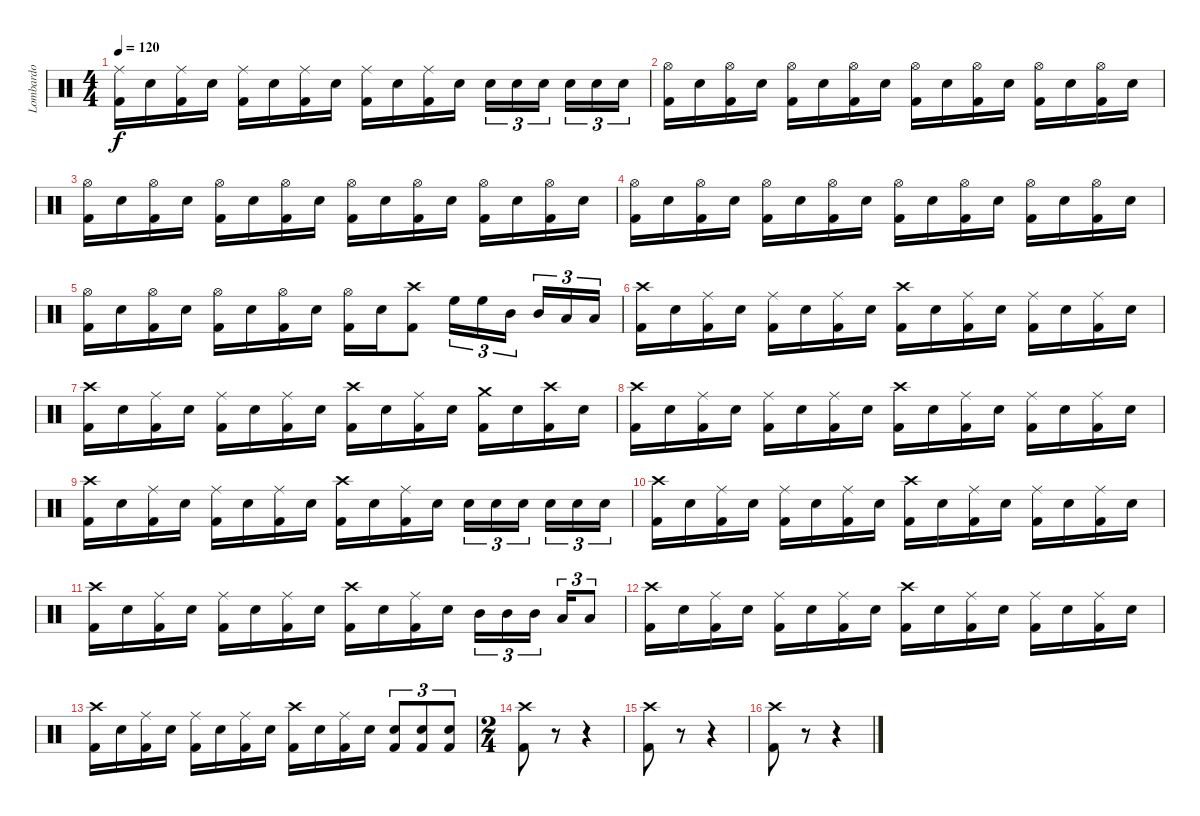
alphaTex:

\track ("Lombardo" "Lombardo") {instrument percussion}
\staff {score}
\articulation defaults
\ts (4 4)
\tempo 120
\clef neutral
\ks c
("Ride (middle)" "Kick (hit) 2").16{dy f} "Electric Snare (hit)".16 ("Ride (middle)" "Kick (hit) 2").16 "Electric Snare (hit)".16 ("Ride (middle)" "Kick (hit) 2").16 "Electric Snare (hit)".16 ("Ride (middle)" "Kick (hit) 2").16 "Electric Snare (hit)".16 ("Ride (middle)" "Kick (hit) 2").16 "Electric Snare (hit)".16 ("Ride (middle)" "Kick (hit) 2").16 "Electric Snare (hit)".16 "Electric Snare (hit)".16{tu (3 2)} "Electric Snare (hit)".16{tu (3 2)} "Electric Snare (hit)".16{tu (3 2)} "Electric Snare (hit)".16{tu (3 2)} "Electric Snare (hit)".16{tu (3 2)} "Electric Snare (hit)".16{tu (3 2)} |
("Hi-Hat (open)" "Kick (hit) 2").16 "Electric Snare (hit)".16 ("Hi-Hat (open)" "Kick (hit) 2").16 "Electric Snare (hit)".16 ("Hi-Hat (open)" "Kick (hit) 2").16 "Electric Snare (hit)".16 ("Hi-Hat (open)" "Kick (hit) 2").16 "Electric Snare (hit)".16 ("Hi-Hat (open)" "Kick (hit) 2").16 "Electric Snare (hit)".16 ("Hi-Hat (open)" "Kick (hit) 2").16 "Electric Snare (hit)".16 ("Hi-Hat (open)" "Kick (hit) 2").16 "Electric Snare (hit)".16 ("Hi-Hat (open)" "Kick (hit) 2").16 "Electric Snare (hit)".16 |
("Hi-Hat (open)" "Kick (hit) 2").16 "Electric Snare (hit)".16 ("Hi-Hat (open)" "Kick (hit) 2").16 "Electric Snare (hit)".16 ("Hi-Hat (open)" "Kick (hit) 2").16 "Electric Snare (hit)".16 ("Hi-Hat (open)" "Kick (hit) 2").16 "Electric Snare (hit)".16 ("Hi-Hat (open)" "Kick (hit) 2").16 "Electric Snare (hit)".16 ("Hi-Hat (open)" "Kick (hit) 2").16 "Electric Snare (hit)".16 ("Hi-Hat (open)" "Kick (hit) 2").16 "Electric Snare (hit)".16 ("Hi-Hat (open)" "Kick (hit) 2").16 "Electric Snare (hit)".16 |
("Hi-Hat (open)" "Kick (hit) 2").16 "Electric Snare (hit)".16 ("Hi-Hat (open)" "Kick (hit) 2").16 "Electric Snare (hit)".16 ("Hi-Hat (open)" "Kick (hit) 2").16 "Electric Snare (hit)".16 ("Hi-Hat (open)" "Kick (hit) 2").16 "Electric Snare (hit)".16 ("Hi-Hat (open)" "Kick (hit) 2").16 "Electric Snare (hit)".16 ("Hi-Hat (open)" "Kick (hit) 2").16 "Electric Snare (hit)".16 ("Hi-Hat (open)" "Kick (hit) 2").16 "Electric Snare (hit)".16 ("Hi-Hat (open)" "Kick (hit) 2").16 "Electric Snare (hit)".16 |
("Hi-Hat (open)" "Kick (hit) 2").16 "Electric Snare (hit)".16 ("Hi-Hat (open)" "Kick (hit) 2").16 "Electric Snare (hit)".16 ("Hi-Hat (open)" "Kick (hit) 2").16 "Electric Snare (hit)".16 ("Hi-Hat (open)" "Kick (hit) 2").16 "Electric Snare (hit)".16 ("Hi-Hat (open)" "Kick (hit) 2").16 "Electric Snare (hit)".16 ("Crash high (hit)" "Kick (hit) 2").8 "High Floor Tom (hit)".16{tu (3 2)} "High Floor Tom (hit)".16{tu (3 2)} "Mid Tom (hit)".16{tu (3 2)} "Mid Tom (hit)".16{tu (3 2)} "Low Tom (hit)".16{tu (3 2)} "Low Tom (hit)".16{tu (3 2)} |
("Crash high (hit)" "Kick (hit) 2").16 "Electric Snare (hit)".16 ("Ride (middle)" "Kick (hit) 2").16 "Electric Snare (hit)".16 ("Ride (middle)" "Kick (hit) 2").16 "Electric Snare (hit)".16 ("Ride (middle)" "Kick (hit) 2").16 "Electric Snare (hit)".16 ("Crash high (hit)" "Kick (hit) 2").16 "Electric Snare (hit)".16 ("Ride (middle)" "Kick (hit) 2").16 "Electric Snare (hit)".16 ("Ride (middle)" "Kick (hit) 2").16 "Electric Snare (hit)".16 ("Ride (middle)" "Kick (hit) 2").16 "Electric Snare (hit)".16 |
("Crash high (hit)" "Kick (hit) 2").16 "Electric Snare (hit)".16 ("Ride (middle)" "Kick (hit) 2").16 "Electric Snare (hit)".16 ("Ride (middle)" "Kick (hit) 2").16 "Electric Snare (hit)".16 ("Ride (middle)" "Kick (hit) 2").16 "Electric Snare (hit)".16 ("Crash high (hit)" "Kick (hit) 2").16 "Electric Snare (hit)".16 ("Ride (middle)" "Kick (hit) 2").16 "Electric Snare (hit)".16 ("Crash medium (hit)" "Kick (hit) 2").16 "Electric Snare (hit)".16 ("Crash high (hit)" "Kick (hit) 2").16 "Electric Snare (hit)".16 |
("Crash high (hit)" "Kick (hit) 2").16 "Electric Snare (hit)".16 ("Ride (middle)" "Kick (hit) 2").16 "Electric Snare (hit)".16 ("Ride (middle)" "Kick (hit) 2").16 "Electric Snare (hit)".16 ("Ride (middle)" "Kick (hit) 2").16 "Electric Snare (hit)".16 ("Crash high (hit)" "Kick (hit) 2").16 "Electric Snare (hit)".16 ("Ride (middle)" "Kick (hit) 2").16 "Electric Snare (hit)".16 ("Ride (middle)" "Kick (hit) 2").16 "Electric Snare (hit)".16 ("Ride (middle)" "Kick (hit) 2").16 "Electric Snare (hit)".16 |
("Crash high (hit)" "Kick (hit) 2").16 "Electric Snare (hit)".16 ("Ride (middle)" "Kick (hit) 2").16 "Electric Snare (hit)".16 ("Ride (middle)" "Kick (hit) 2").16 "Electric Snare (hit)".16 ("Ride (middle)" "Kick (hit) 2").16 "Electric Snare (hit)".16 ("Crash high (hit)" "Kick (hit) 2").16 "Electric Snare (hit)".16 ("Ride (middle)" "Kick (hit) 2").16 "Electric Snare (hit)".16 "Electric Snare (hit)".16{tu (3 2)} "Electric Snare (hit)".16{tu (3 2)} "Electric Snare (hit)".16{tu (3 2)} "Electric Snare (hit)".16{tu (3 2)} "Electric Snare (hit)".16{tu (3 2)} "Electric Snare (hit)".16{tu (3 2)} |
("Crash high (hit)" "Kick (hit) 2").16 "Electric Snare (hit)".16 ("Ride (middle)" "Kick (hit) 2").16 "Electric Snare (hit)".16 ("Ride (middle)" "Kick (hit) 2").16 "Electric Snare (hit)".16 ("Ride (middle)" "Kick (hit) 2").16 "Electric Snare (hit)".16 ("Crash high (hit)" "Kick (hit) 2").16 "Electric Snare (hit)".16 ("Ride (middle)" "Kick (hit) 2").16 "Electric Snare (hit)".16 ("Ride (middle)" "Kick (hit) 2").16 "Electric Snare (hit)".16 ("Ride (middle)" "Kick (hit) 2").16 "Electric Snare (hit)".16 |
("Crash high (hit)" "Kick (hit) 2").16 "Electric Snare (hit)".16 ("Ride (middle)" "Kick (hit) 2").16 "Electric Snare (hit)".16 ("Ride (middle)" "Kick (hit) 2").16 "Electric Snare (hit)".16 ("Ride (middle)" "Kick (hit) 2").16 "Electric Snare (hit)".16 ("Crash high (hit)" "Kick (hit) 2").16 "Electric Snare (hit)".16 ("Ride (middle)" "Kick (hit) 2").16 "Electric Snare (hit)".16 "Mid Tom (hit)".16{tu (3 2)} "Mid Tom (hit)".16{tu (3 2)} "Mid Tom (hit)".16{tu (3 2)} "Low Tom (hit)".16{tu (3 2)} "Low Tom (hit)".8{tu (3 2)} |
("Crash high (hit)" "Kick (hit) 2").16 "Electric Snare (hit)".16 ("Ride (middle)" "Kick (hit) 2").16 "Electric Snare (hit)".16 ("Ride (middle)" "Kick (hit) 2").16 "Electric Snare (hit)".16 ("Ride (middle)" "Kick (hit) 2").16 "Electric Snare (hit)".16 ("Crash high (hit)" "Kick (hit) 2").16 "Electric Snare (hit)".16 ("Ride (middle)" "Kick (hit) 2").16 "Electric Snare (hit)".16 ("Ride (middle)" "Kick (hit) 2").16 "Electric Snare (hit)".16 ("Ride (middle)" "Kick (hit) 2").16 "Electric Snare (hit)".16 |
("Crash high (hit)" "Kick (hit) 2").16 "Electric Snare (hit)".16 ("Ride (middle)" "Kick (hit) 2").16 "Electric Snare (hit)".16 ("Ride (middle)" "Kick (hit) 2").16 "Electric Snare (hit)".16 ("Ride (middle)" "Kick (hit) 2").16 "Electric Snare (hit)".16 ("Crash high (hit)" "Kick (hit) 2").16 "Electric Snare (hit)".16 ("Ride (middle)" "Kick (hit) 2").16 "Electric Snare (hit)".16 ("Electric Snare (hit)" "Kick (hit) 2").8{tu (3 2)} ("Electric Snare (hit)" "Kick (hit) 2").8{tu (3 2)} ("Electric Snare (hit)" "Kick (hit) 2").8{tu (3 2)} |
\ts (2 4)
("Crash high (hit)" "Kick (hit) 2").8{volume 16} r.8{volume 0} r.4 |
("Crash high (hit)" "Kick (hit) 2").8{volume 16} r.8{volume 0} r.4 |
("Crash high (hit)" "Kick (hit) 2").8{volume 16} r.8{volume 0} r.4
